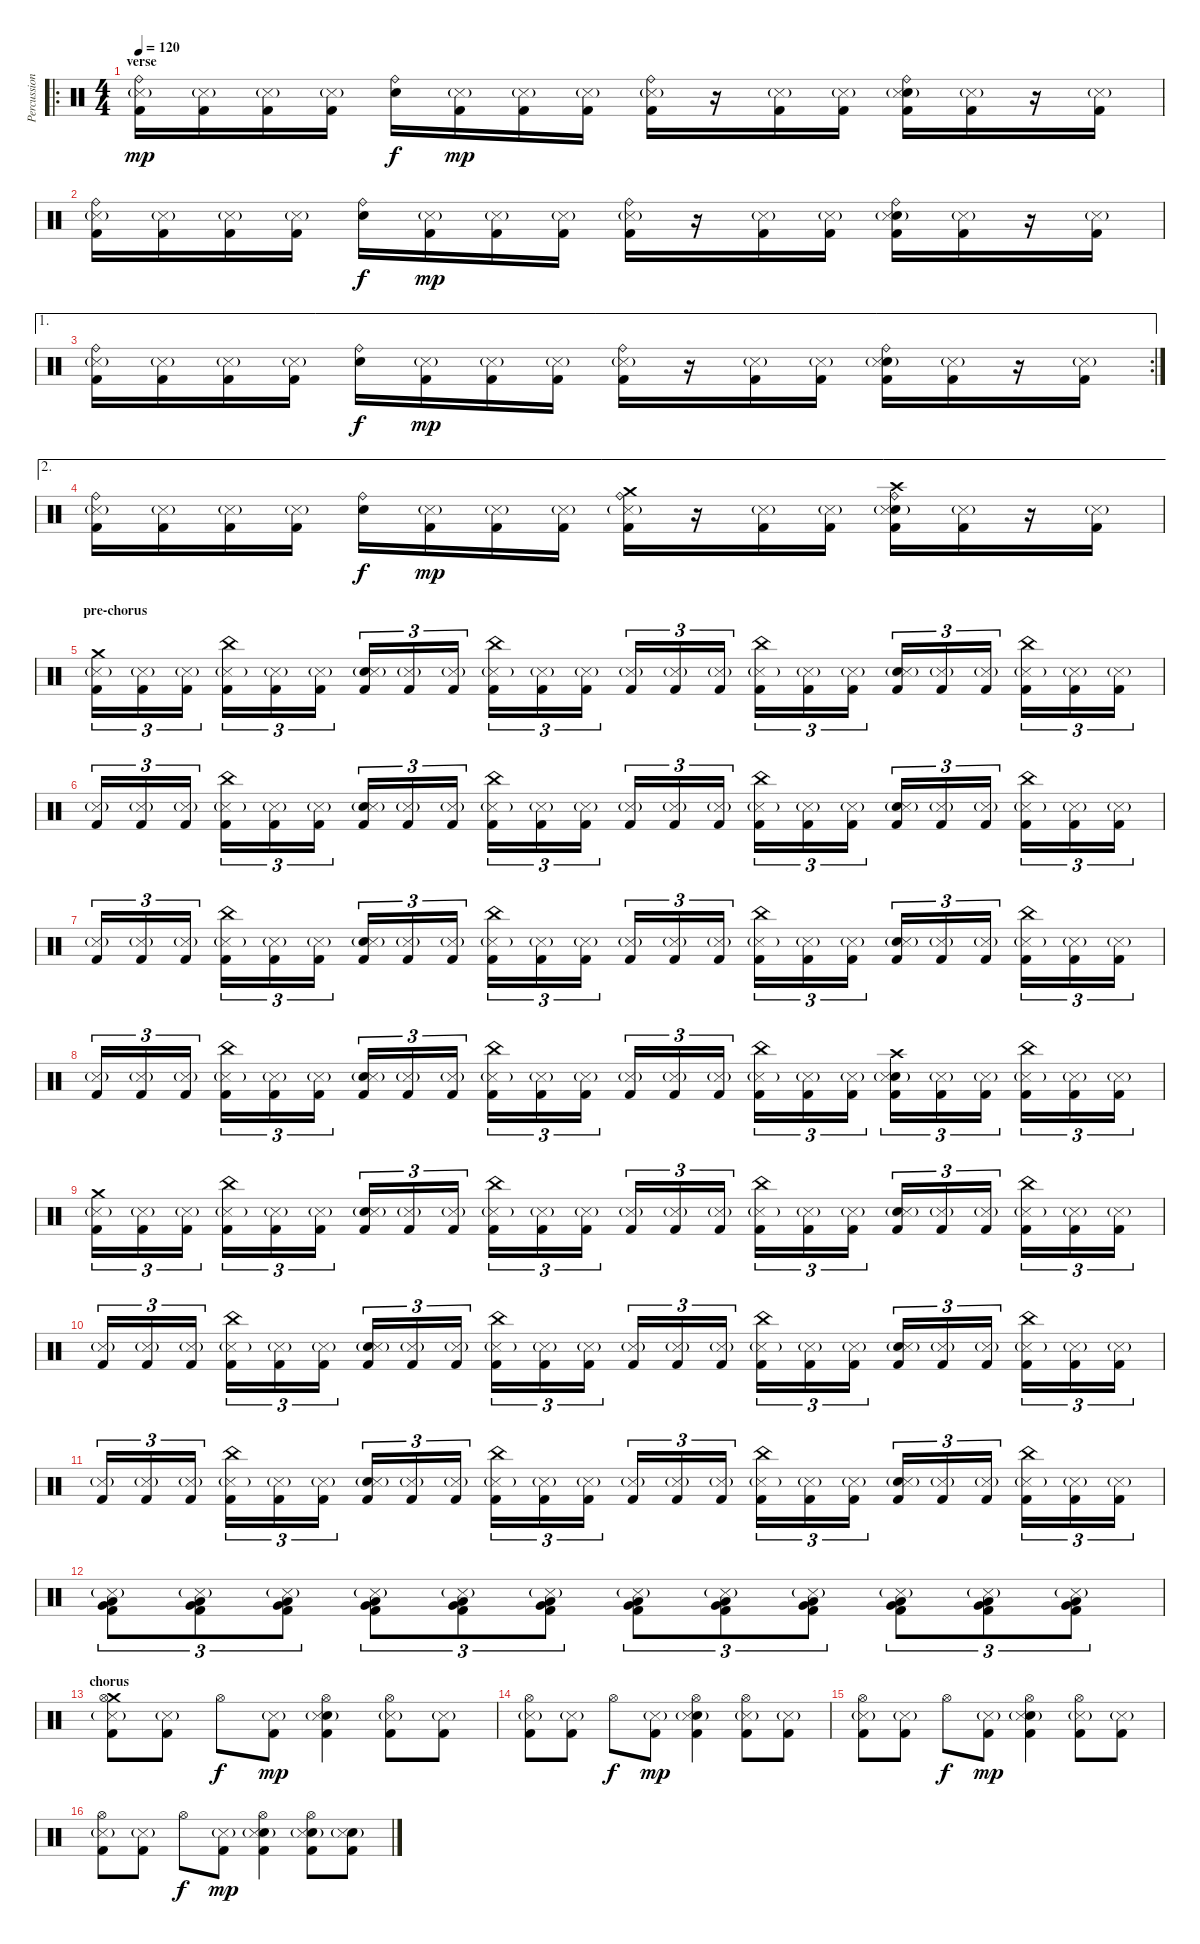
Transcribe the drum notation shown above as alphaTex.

\track ("Percussion" "Percussion") {instrument percussion}
\staff {score}
\articulation defaults
\ro
\ts (4 4)
\section ("" "verse")
\tempo 120
\clef neutral
\ks c
("Ride (bell)" "Snare (side stick) 3"{g} "Kick (hit) 2").16{dy mp} ("Snare (side stick) 3"{g} "Kick (hit) 2").16 ("Snare (side stick) 3"{g} "Kick (hit) 2").16 ("Snare (side stick) 3"{g} "Kick (hit) 2").16 ("Ride (bell)" "Electric Snare (hit)").16{dy f} ("Snare (side stick) 3"{g} "Kick (hit) 2").16{dy mp} ("Snare (side stick) 3"{g} "Kick (hit) 2").16 ("Snare (side stick) 3"{g} "Kick (hit) 2").16 ("Ride (bell)" "Snare (side stick) 3"{g} "Kick (hit) 2").16 r.16 ("Snare (side stick) 3"{g} "Kick (hit) 2").16 ("Snare (side stick) 3"{g} "Kick (hit) 2").16 ("Ride (bell)" "Electric Snare (hit)" "Snare (side stick) 3"{g} "Kick (hit) 2").16 ("Snare (side stick) 3"{g} "Kick (hit) 2").16 r.16 ("Snare (side stick) 3"{g} "Kick (hit) 2").16 |
("Ride (bell)" "Snare (side stick) 3"{g} "Kick (hit) 2").16 ("Snare (side stick) 3"{g} "Kick (hit) 2").16 ("Snare (side stick) 3"{g} "Kick (hit) 2").16 ("Snare (side stick) 3"{g} "Kick (hit) 2").16 ("Ride (bell)" "Electric Snare (hit)").16{dy f} ("Snare (side stick) 3"{g} "Kick (hit) 2").16{dy mp} ("Snare (side stick) 3"{g} "Kick (hit) 2").16 ("Snare (side stick) 3"{g} "Kick (hit) 2").16 ("Ride (bell)" "Snare (side stick) 3"{g} "Kick (hit) 2").16 r.16 ("Snare (side stick) 3"{g} "Kick (hit) 2").16 ("Snare (side stick) 3"{g} "Kick (hit) 2").16 ("Ride (bell)" "Electric Snare (hit)" "Snare (side stick) 3"{g} "Kick (hit) 2").16 ("Snare (side stick) 3"{g} "Kick (hit) 2").16 r.16 ("Snare (side stick) 3"{g} "Kick (hit) 2").16 |
\ae 1
\rc 2
("Ride (bell)" "Snare (side stick) 3"{g} "Kick (hit) 2").16 ("Snare (side stick) 3"{g} "Kick (hit) 2").16 ("Snare (side stick) 3"{g} "Kick (hit) 2").16 ("Snare (side stick) 3"{g} "Kick (hit) 2").16 ("Ride (bell)" "Electric Snare (hit)").16{dy f} ("Snare (side stick) 3"{g} "Kick (hit) 2").16{dy mp} ("Snare (side stick) 3"{g} "Kick (hit) 2").16 ("Snare (side stick) 3"{g} "Kick (hit) 2").16 ("Ride (bell)" "Snare (side stick) 3"{g} "Kick (hit) 2").16 r.16 ("Snare (side stick) 3"{g} "Kick (hit) 2").16 ("Snare (side stick) 3"{g} "Kick (hit) 2").16 ("Ride (bell)" "Electric Snare (hit)" "Snare (side stick) 3"{g} "Kick (hit) 2").16 ("Snare (side stick) 3"{g} "Kick (hit) 2").16 r.16 ("Snare (side stick) 3"{g} "Kick (hit) 2").16 |
\ae 2
("Ride (bell)" "Snare (side stick) 3"{g} "Kick (hit) 2").16 ("Snare (side stick) 3"{g} "Kick (hit) 2").16 ("Snare (side stick) 3"{g} "Kick (hit) 2").16 ("Snare (side stick) 3"{g} "Kick (hit) 2").16 ("Ride (bell)" "Electric Snare (hit)").16{dy f} ("Snare (side stick) 3"{g} "Kick (hit) 2").16{dy mp} ("Snare (side stick) 3"{g} "Kick (hit) 2").16 ("Snare (side stick) 3"{g} "Kick (hit) 2").16 ("Crash medium (hit)" "Ride (bell)" "Snare (side stick) 3"{g} "Kick (hit) 2").16 r.16 ("Snare (side stick) 3"{g} "Kick (hit) 2").16 ("Snare (side stick) 3"{g} "Kick (hit) 2").16 ("Crash high (hit)" "Ride (bell)" "Electric Snare (hit)" "Snare (side stick) 3"{g} "Kick (hit) 2").16 ("Snare (side stick) 3"{g} "Kick (hit) 2").16 r.16 ("Snare (side stick) 3"{g} "Kick (hit) 2").16 |
\section ("" "pre-chorus")
("Crash medium (hit)" "Snare (side stick) 3"{g} "Kick (hit) 2").16{tu (3 2)} ("Snare (side stick) 3"{g} "Kick (hit) 2").16{tu (3 2)} ("Snare (side stick) 3"{g} "Kick (hit) 2").16{tu (3 2)} ("China (hit)" "Snare (side stick) 3"{g} "Kick (hit) 2").16{tu (3 2)} ("Snare (side stick) 3"{g} "Kick (hit) 2").16{tu (3 2)} ("Snare (side stick) 3"{g} "Kick (hit) 2").16{tu (3 2)} ("Electric Snare (hit)" "Snare (side stick) 3"{g} "Kick (hit) 2").16{tu (3 2)} ("Snare (side stick) 3"{g} "Kick (hit) 2").16{tu (3 2)} ("Snare (side stick) 3"{g} "Kick (hit) 2").16{tu (3 2)} ("China (hit)" "Snare (side stick) 3"{g} "Kick (hit) 2").16{tu (3 2)} ("Snare (side stick) 3"{g} "Kick (hit) 2").16{tu (3 2)} ("Snare (side stick) 3"{g} "Kick (hit) 2").16{tu (3 2)} ("Snare (side stick) 3"{g} "Kick (hit) 2").16{tu (3 2)} ("Snare (side stick) 3"{g} "Kick (hit) 2").16{tu (3 2)} ("Snare (side stick) 3"{g} "Kick (hit) 2").16{tu (3 2)} ("China (hit)" "Snare (side stick) 3"{g} "Kick (hit) 2").16{tu (3 2)} ("Snare (side stick) 3"{g} "Kick (hit) 2").16{tu (3 2)} ("Snare (side stick) 3"{g} "Kick (hit) 2").16{tu (3 2)} ("Electric Snare (hit)" "Snare (side stick) 3"{g} "Kick (hit) 2").16{tu (3 2)} ("Snare (side stick) 3"{g} "Kick (hit) 2").16{tu (3 2)} ("Snare (side stick) 3"{g} "Kick (hit) 2").16{tu (3 2)} ("China (hit)" "Snare (side stick) 3"{g} "Kick (hit) 2").16{tu (3 2)} ("Snare (side stick) 3"{g} "Kick (hit) 2").16{tu (3 2)} ("Snare (side stick) 3"{g} "Kick (hit) 2").16{tu (3 2)} |
("Snare (side stick) 3"{g} "Kick (hit) 2").16{tu (3 2)} ("Snare (side stick) 3"{g} "Kick (hit) 2").16{tu (3 2)} ("Snare (side stick) 3"{g} "Kick (hit) 2").16{tu (3 2)} ("China (hit)" "Snare (side stick) 3"{g} "Kick (hit) 2").16{tu (3 2)} ("Snare (side stick) 3"{g} "Kick (hit) 2").16{tu (3 2)} ("Snare (side stick) 3"{g} "Kick (hit) 2").16{tu (3 2)} ("Electric Snare (hit)" "Snare (side stick) 3"{g} "Kick (hit) 2").16{tu (3 2)} ("Snare (side stick) 3"{g} "Kick (hit) 2").16{tu (3 2)} ("Snare (side stick) 3"{g} "Kick (hit) 2").16{tu (3 2)} ("China (hit)" "Snare (side stick) 3"{g} "Kick (hit) 2").16{tu (3 2)} ("Snare (side stick) 3"{g} "Kick (hit) 2").16{tu (3 2)} ("Snare (side stick) 3"{g} "Kick (hit) 2").16{tu (3 2)} ("Snare (side stick) 3"{g} "Kick (hit) 2").16{tu (3 2)} ("Snare (side stick) 3"{g} "Kick (hit) 2").16{tu (3 2)} ("Snare (side stick) 3"{g} "Kick (hit) 2").16{tu (3 2)} ("China (hit)" "Snare (side stick) 3"{g} "Kick (hit) 2").16{tu (3 2)} ("Snare (side stick) 3"{g} "Kick (hit) 2").16{tu (3 2)} ("Snare (side stick) 3"{g} "Kick (hit) 2").16{tu (3 2)} ("Electric Snare (hit)" "Snare (side stick) 3"{g} "Kick (hit) 2").16{tu (3 2)} ("Snare (side stick) 3"{g} "Kick (hit) 2").16{tu (3 2)} ("Snare (side stick) 3"{g} "Kick (hit) 2").16{tu (3 2)} ("China (hit)" "Snare (side stick) 3"{g} "Kick (hit) 2").16{tu (3 2)} ("Snare (side stick) 3"{g} "Kick (hit) 2").16{tu (3 2)} ("Snare (side stick) 3"{g} "Kick (hit) 2").16{tu (3 2)} |
("Snare (side stick) 3"{g} "Kick (hit) 2").16{tu (3 2)} ("Snare (side stick) 3"{g} "Kick (hit) 2").16{tu (3 2)} ("Snare (side stick) 3"{g} "Kick (hit) 2").16{tu (3 2)} ("China (hit)" "Snare (side stick) 3"{g} "Kick (hit) 2").16{tu (3 2)} ("Snare (side stick) 3"{g} "Kick (hit) 2").16{tu (3 2)} ("Snare (side stick) 3"{g} "Kick (hit) 2").16{tu (3 2)} ("Electric Snare (hit)" "Snare (side stick) 3"{g} "Kick (hit) 2").16{tu (3 2)} ("Snare (side stick) 3"{g} "Kick (hit) 2").16{tu (3 2)} ("Snare (side stick) 3"{g} "Kick (hit) 2").16{tu (3 2)} ("China (hit)" "Snare (side stick) 3"{g} "Kick (hit) 2").16{tu (3 2)} ("Snare (side stick) 3"{g} "Kick (hit) 2").16{tu (3 2)} ("Snare (side stick) 3"{g} "Kick (hit) 2").16{tu (3 2)} ("Snare (side stick) 3"{g} "Kick (hit) 2").16{tu (3 2)} ("Snare (side stick) 3"{g} "Kick (hit) 2").16{tu (3 2)} ("Snare (side stick) 3"{g} "Kick (hit) 2").16{tu (3 2)} ("China (hit)" "Snare (side stick) 3"{g} "Kick (hit) 2").16{tu (3 2)} ("Snare (side stick) 3"{g} "Kick (hit) 2").16{tu (3 2)} ("Snare (side stick) 3"{g} "Kick (hit) 2").16{tu (3 2)} ("Electric Snare (hit)" "Snare (side stick) 3"{g} "Kick (hit) 2").16{tu (3 2)} ("Snare (side stick) 3"{g} "Kick (hit) 2").16{tu (3 2)} ("Snare (side stick) 3"{g} "Kick (hit) 2").16{tu (3 2)} ("China (hit)" "Snare (side stick) 3"{g} "Kick (hit) 2").16{tu (3 2)} ("Snare (side stick) 3"{g} "Kick (hit) 2").16{tu (3 2)} ("Snare (side stick) 3"{g} "Kick (hit) 2").16{tu (3 2)} |
("Snare (side stick) 3"{g} "Kick (hit) 2").16{tu (3 2)} ("Snare (side stick) 3"{g} "Kick (hit) 2").16{tu (3 2)} ("Snare (side stick) 3"{g} "Kick (hit) 2").16{tu (3 2)} ("China (hit)" "Snare (side stick) 3"{g} "Kick (hit) 2").16{tu (3 2)} ("Snare (side stick) 3"{g} "Kick (hit) 2").16{tu (3 2)} ("Snare (side stick) 3"{g} "Kick (hit) 2").16{tu (3 2)} ("Electric Snare (hit)" "Snare (side stick) 3"{g} "Kick (hit) 2").16{tu (3 2)} ("Snare (side stick) 3"{g} "Kick (hit) 2").16{tu (3 2)} ("Snare (side stick) 3"{g} "Kick (hit) 2").16{tu (3 2)} ("China (hit)" "Snare (side stick) 3"{g} "Kick (hit) 2").16{tu (3 2)} ("Snare (side stick) 3"{g} "Kick (hit) 2").16{tu (3 2)} ("Snare (side stick) 3"{g} "Kick (hit) 2").16{tu (3 2)} ("Snare (side stick) 3"{g} "Kick (hit) 2").16{tu (3 2)} ("Snare (side stick) 3"{g} "Kick (hit) 2").16{tu (3 2)} ("Snare (side stick) 3"{g} "Kick (hit) 2").16{tu (3 2)} ("China (hit)" "Snare (side stick) 3"{g} "Kick (hit) 2").16{tu (3 2)} ("Snare (side stick) 3"{g} "Kick (hit) 2").16{tu (3 2)} ("Snare (side stick) 3"{g} "Kick (hit) 2").16{tu (3 2)} ("Crash high (hit)" "Electric Snare (hit)" "Snare (side stick) 3"{g} "Kick (hit) 2").16{tu (3 2)} ("Snare (side stick) 3"{g} "Kick (hit) 2").16{tu (3 2)} ("Snare (side stick) 3"{g} "Kick (hit) 2").16{tu (3 2)} ("China (hit)" "Snare (side stick) 3"{g} "Kick (hit) 2").16{tu (3 2)} ("Snare (side stick) 3"{g} "Kick (hit) 2").16{tu (3 2)} ("Snare (side stick) 3"{g} "Kick (hit) 2").16{tu (3 2)} |
("Crash medium (hit)" "Snare (side stick) 3"{g} "Kick (hit) 2").16{tu (3 2)} ("Snare (side stick) 3"{g} "Kick (hit) 2").16{tu (3 2)} ("Snare (side stick) 3"{g} "Kick (hit) 2").16{tu (3 2)} ("China (hit)" "Snare (side stick) 3"{g} "Kick (hit) 2").16{tu (3 2)} ("Snare (side stick) 3"{g} "Kick (hit) 2").16{tu (3 2)} ("Snare (side stick) 3"{g} "Kick (hit) 2").16{tu (3 2)} ("Electric Snare (hit)" "Snare (side stick) 3"{g} "Kick (hit) 2").16{tu (3 2)} ("Snare (side stick) 3"{g} "Kick (hit) 2").16{tu (3 2)} ("Snare (side stick) 3"{g} "Kick (hit) 2").16{tu (3 2)} ("China (hit)" "Snare (side stick) 3"{g} "Kick (hit) 2").16{tu (3 2)} ("Snare (side stick) 3"{g} "Kick (hit) 2").16{tu (3 2)} ("Snare (side stick) 3"{g} "Kick (hit) 2").16{tu (3 2)} ("Snare (side stick) 3"{g} "Kick (hit) 2").16{tu (3 2)} ("Snare (side stick) 3"{g} "Kick (hit) 2").16{tu (3 2)} ("Snare (side stick) 3"{g} "Kick (hit) 2").16{tu (3 2)} ("China (hit)" "Snare (side stick) 3"{g} "Kick (hit) 2").16{tu (3 2)} ("Snare (side stick) 3"{g} "Kick (hit) 2").16{tu (3 2)} ("Snare (side stick) 3"{g} "Kick (hit) 2").16{tu (3 2)} ("Electric Snare (hit)" "Snare (side stick) 3"{g} "Kick (hit) 2").16{tu (3 2)} ("Snare (side stick) 3"{g} "Kick (hit) 2").16{tu (3 2)} ("Snare (side stick) 3"{g} "Kick (hit) 2").16{tu (3 2)} ("China (hit)" "Snare (side stick) 3"{g} "Kick (hit) 2").16{tu (3 2)} ("Snare (side stick) 3"{g} "Kick (hit) 2").16{tu (3 2)} ("Snare (side stick) 3"{g} "Kick (hit) 2").16{tu (3 2)} |
("Snare (side stick) 3"{g} "Kick (hit) 2").16{tu (3 2)} ("Snare (side stick) 3"{g} "Kick (hit) 2").16{tu (3 2)} ("Snare (side stick) 3"{g} "Kick (hit) 2").16{tu (3 2)} ("China (hit)" "Snare (side stick) 3"{g} "Kick (hit) 2").16{tu (3 2)} ("Snare (side stick) 3"{g} "Kick (hit) 2").16{tu (3 2)} ("Snare (side stick) 3"{g} "Kick (hit) 2").16{tu (3 2)} ("Electric Snare (hit)" "Snare (side stick) 3"{g} "Kick (hit) 2").16{tu (3 2)} ("Snare (side stick) 3"{g} "Kick (hit) 2").16{tu (3 2)} ("Snare (side stick) 3"{g} "Kick (hit) 2").16{tu (3 2)} ("China (hit)" "Snare (side stick) 3"{g} "Kick (hit) 2").16{tu (3 2)} ("Snare (side stick) 3"{g} "Kick (hit) 2").16{tu (3 2)} ("Snare (side stick) 3"{g} "Kick (hit) 2").16{tu (3 2)} ("Snare (side stick) 3"{g} "Kick (hit) 2").16{tu (3 2)} ("Snare (side stick) 3"{g} "Kick (hit) 2").16{tu (3 2)} ("Snare (side stick) 3"{g} "Kick (hit) 2").16{tu (3 2)} ("China (hit)" "Snare (side stick) 3"{g} "Kick (hit) 2").16{tu (3 2)} ("Snare (side stick) 3"{g} "Kick (hit) 2").16{tu (3 2)} ("Snare (side stick) 3"{g} "Kick (hit) 2").16{tu (3 2)} ("Electric Snare (hit)" "Snare (side stick) 3"{g} "Kick (hit) 2").16{tu (3 2)} ("Snare (side stick) 3"{g} "Kick (hit) 2").16{tu (3 2)} ("Snare (side stick) 3"{g} "Kick (hit) 2").16{tu (3 2)} ("China (hit)" "Snare (side stick) 3"{g} "Kick (hit) 2").16{tu (3 2)} ("Snare (side stick) 3"{g} "Kick (hit) 2").16{tu (3 2)} ("Snare (side stick) 3"{g} "Kick (hit) 2").16{tu (3 2)} |
("Snare (side stick) 3"{g} "Kick (hit) 2").16{tu (3 2)} ("Snare (side stick) 3"{g} "Kick (hit) 2").16{tu (3 2)} ("Snare (side stick) 3"{g} "Kick (hit) 2").16{tu (3 2)} ("China (hit)" "Snare (side stick) 3"{g} "Kick (hit) 2").16{tu (3 2)} ("Snare (side stick) 3"{g} "Kick (hit) 2").16{tu (3 2)} ("Snare (side stick) 3"{g} "Kick (hit) 2").16{tu (3 2)} ("Electric Snare (hit)" "Snare (side stick) 3"{g} "Kick (hit) 2").16{tu (3 2)} ("Snare (side stick) 3"{g} "Kick (hit) 2").16{tu (3 2)} ("Snare (side stick) 3"{g} "Kick (hit) 2").16{tu (3 2)} ("China (hit)" "Snare (side stick) 3"{g} "Kick (hit) 2").16{tu (3 2)} ("Snare (side stick) 3"{g} "Kick (hit) 2").16{tu (3 2)} ("Snare (side stick) 3"{g} "Kick (hit) 2").16{tu (3 2)} ("Snare (side stick) 3"{g} "Kick (hit) 2").16{tu (3 2)} ("Snare (side stick) 3"{g} "Kick (hit) 2").16{tu (3 2)} ("Snare (side stick) 3"{g} "Kick (hit) 2").16{tu (3 2)} ("China (hit)" "Snare (side stick) 3"{g} "Kick (hit) 2").16{tu (3 2)} ("Snare (side stick) 3"{g} "Kick (hit) 2").16{tu (3 2)} ("Snare (side stick) 3"{g} "Kick (hit) 2").16{tu (3 2)} ("Electric Snare (hit)" "Snare (side stick) 3"{g} "Kick (hit) 2").16{tu (3 2)} ("Snare (side stick) 3"{g} "Kick (hit) 2").16{tu (3 2)} ("Snare (side stick) 3"{g} "Kick (hit) 2").16{tu (3 2)} ("China (hit)" "Snare (side stick) 3"{g} "Kick (hit) 2").16{tu (3 2)} ("Snare (side stick) 3"{g} "Kick (hit) 2").16{tu (3 2)} ("Snare (side stick) 3"{g} "Kick (hit) 2").16{tu (3 2)} |
("Very Low Tom (hit)" "Low Floor Tom (hit)" "Snare (side stick) 3"{g} "Kick (hit) 2").8{tu (3 2)} ("Very Low Tom (hit)" "Low Floor Tom (hit)" "Snare (side stick) 3"{g} "Kick (hit) 2").8{tu (3 2)} ("Very Low Tom (hit)" "Low Floor Tom (hit)" "Snare (side stick) 3"{g} "Kick (hit) 2").8{tu (3 2)} ("Very Low Tom (hit)" "Low Floor Tom (hit)" "Snare (side stick) 3"{g} "Kick (hit) 2").8{tu (3 2)} ("Very Low Tom (hit)" "Low Floor Tom (hit)" "Snare (side stick) 3"{g} "Kick (hit) 2").8{tu (3 2)} ("Very Low Tom (hit)" "Low Floor Tom (hit)" "Snare (side stick) 3"{g} "Kick (hit) 2").8{tu (3 2)} ("Very Low Tom (hit)" "Low Floor Tom (hit)" "Snare (side stick) 3"{g} "Kick (hit) 2").8{tu (3 2)} ("Very Low Tom (hit)" "Low Floor Tom (hit)" "Snare (side stick) 3"{g} "Kick (hit) 2").8{tu (3 2)} ("Very Low Tom (hit)" "Low Floor Tom (hit)" "Snare (side stick) 3"{g} "Kick (hit) 2").8{tu (3 2)} ("Very Low Tom (hit)" "Low Floor Tom (hit)" "Snare (side stick) 3"{g} "Kick (hit) 2").8{tu (3 2)} ("Very Low Tom (hit)" "Low Floor Tom (hit)" "Snare (side stick) 3"{g} "Kick (hit) 2").8{tu (3 2)} ("Very Low Tom (hit)" "Low Floor Tom (hit)" "Snare (side stick) 3"{g} "Kick (hit) 2").8{tu (3 2)} |
\section ("" "chorus")
("Crash medium (hit)" "Hi-Hat (open)" "Snare (side stick) 3"{g} "Kick (hit) 2").8 ("Snare (side stick) 3"{g} "Kick (hit) 2").8 "Hi-Hat (open)".8{dy f} ("Snare (side stick) 3"{g} "Kick (hit) 2").8{dy mp} ("Hi-Hat (open)" "Electric Snare (hit)" "Snare (side stick) 3"{g} "Kick (hit) 2").4 ("Hi-Hat (open)" "Snare (side stick) 3"{g} "Kick (hit) 2").8 ("Snare (side stick) 3"{g} "Kick (hit) 2").8 |
("Hi-Hat (open)" "Snare (side stick) 3"{g} "Kick (hit) 2").8 ("Snare (side stick) 3"{g} "Kick (hit) 2").8 "Hi-Hat (open)".8{dy f} ("Snare (side stick) 3"{g} "Kick (hit) 2").8{dy mp} ("Hi-Hat (open)" "Electric Snare (hit)" "Snare (side stick) 3"{g} "Kick (hit) 2").4 ("Hi-Hat (open)" "Snare (side stick) 3"{g} "Kick (hit) 2").8 ("Snare (side stick) 3"{g} "Kick (hit) 2").8 |
("Hi-Hat (open)" "Snare (side stick) 3"{g} "Kick (hit) 2").8 ("Snare (side stick) 3"{g} "Kick (hit) 2").8 "Hi-Hat (open)".8{dy f} ("Snare (side stick) 3"{g} "Kick (hit) 2").8{dy mp} ("Hi-Hat (open)" "Electric Snare (hit)" "Snare (side stick) 3"{g} "Kick (hit) 2").4 ("Hi-Hat (open)" "Snare (side stick) 3"{g} "Kick (hit) 2").8 ("Snare (side stick) 3"{g} "Kick (hit) 2").8 |
("Hi-Hat (open)" "Snare (side stick) 3"{g} "Kick (hit) 2").8 ("Snare (side stick) 3"{g} "Kick (hit) 2").8 "Hi-Hat (open)".8{dy f} ("Snare (side stick) 3"{g} "Kick (hit) 2").8{dy mp} ("Hi-Hat (open)" "Electric Snare (hit)" "Snare (side stick) 3"{g} "Kick (hit) 2").4 ("Hi-Hat (open)" "Electric Snare (hit)" "Snare (side stick) 3"{g} "Kick (hit) 2").8 ("Electric Snare (hit)" "Snare (side stick) 3"{g} "Kick (hit) 2").8
